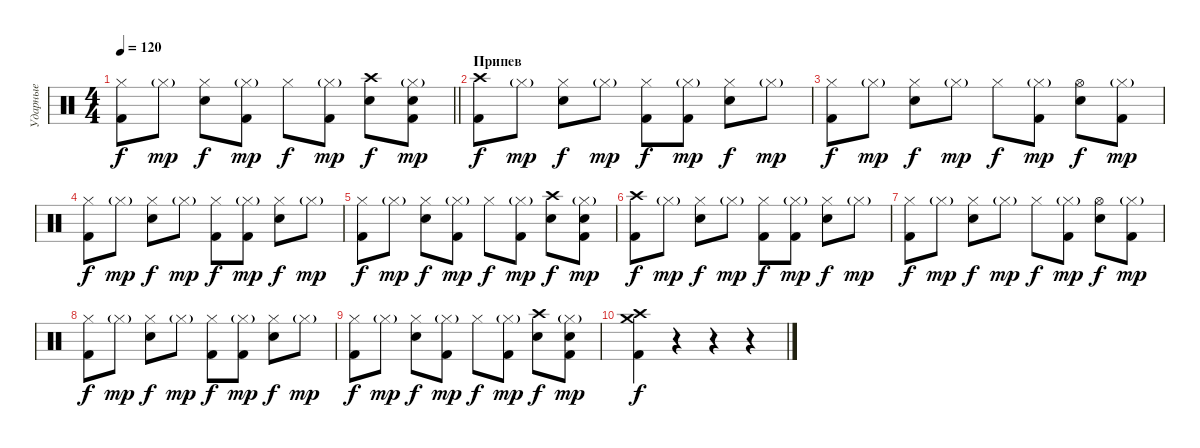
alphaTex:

\track ("Ударные" "Ударные") {instrument percussion}
\staff {score}
\articulation defaults
\ts (4 4)
\tempo 120
\clef neutral
\barLineRight lightlight
\ks c
("Hi-Hat (closed)" "Kick (hit) 2").8{dy f} "Hi-Hat (closed)"{g}.8{dy mp} ("Hi-Hat (closed)" "Electric Snare (hit)").8{dy f} ("Hi-Hat (closed)"{g} "Kick (hit) 2").8{dy mp} "Hi-Hat (closed)".8{dy f} ("Hi-Hat (closed)"{g} "Kick (hit) 2").8{dy mp} ("Crash high (hit)" "Electric Snare (hit)").8{dy f} ("Hi-Hat (closed)"{g} "Kick (hit) 2" "Electric Snare (hit)").8{dy mp} |
\section ("" "Припев")
("Crash high (hit)" "Kick (hit) 2").8{dy f} "Hi-Hat (closed)"{g}.8{dy mp} ("Hi-Hat (closed)" "Electric Snare (hit)").8{dy f} "Hi-Hat (closed)"{g}.8{dy mp} ("Hi-Hat (closed)" "Kick (hit) 2").8{dy f} ("Hi-Hat (closed)"{g} "Kick (hit) 2").8{dy mp} ("Hi-Hat (closed)" "Electric Snare (hit)").8{dy f} "Hi-Hat (closed)"{g}.8{dy mp} |
("Hi-Hat (closed)" "Kick (hit) 2").8{dy f} "Hi-Hat (closed)"{g}.8{dy mp} ("Hi-Hat (closed)" "Electric Snare (hit)").8{dy f} "Hi-Hat (closed)"{g}.8{dy mp} "Hi-Hat (closed)".8{dy f} ("Hi-Hat (closed)"{g} "Kick (hit) 2").8{dy mp} ("Hi-Hat (open)" "Electric Snare (hit)").8{dy f} ("Hi-Hat (closed)"{g} "Kick (hit) 2").8{dy mp} |
("Hi-Hat (closed)" "Kick (hit) 2").8{dy f} "Hi-Hat (closed)"{g}.8{dy mp} ("Hi-Hat (closed)" "Electric Snare (hit)").8{dy f} "Hi-Hat (closed)"{g}.8{dy mp} ("Hi-Hat (closed)" "Kick (hit) 2").8{dy f} ("Hi-Hat (closed)"{g} "Kick (hit) 2").8{dy mp} ("Hi-Hat (closed)" "Electric Snare (hit)").8{dy f} "Hi-Hat (closed)"{g}.8{dy mp} |
("Hi-Hat (closed)" "Kick (hit) 2").8{dy f} "Hi-Hat (closed)"{g}.8{dy mp} ("Hi-Hat (closed)" "Electric Snare (hit)").8{dy f} ("Hi-Hat (closed)"{g} "Kick (hit) 2").8{dy mp} "Hi-Hat (closed)".8{dy f} ("Hi-Hat (closed)"{g} "Kick (hit) 2").8{dy mp} ("Crash high (hit)" "Electric Snare (hit)").8{dy f} ("Hi-Hat (closed)"{g} "Kick (hit) 2" "Electric Snare (hit)").8{dy mp} |
("Crash high (hit)" "Kick (hit) 2").8{dy f} "Hi-Hat (closed)"{g}.8{dy mp} ("Hi-Hat (closed)" "Electric Snare (hit)").8{dy f} "Hi-Hat (closed)"{g}.8{dy mp} ("Hi-Hat (closed)" "Kick (hit) 2").8{dy f} ("Hi-Hat (closed)"{g} "Kick (hit) 2").8{dy mp} ("Hi-Hat (closed)" "Electric Snare (hit)").8{dy f} "Hi-Hat (closed)"{g}.8{dy mp} |
("Hi-Hat (closed)" "Kick (hit) 2").8{dy f} "Hi-Hat (closed)"{g}.8{dy mp} ("Hi-Hat (closed)" "Electric Snare (hit)").8{dy f} "Hi-Hat (closed)"{g}.8{dy mp} "Hi-Hat (closed)".8{dy f} ("Hi-Hat (closed)"{g} "Kick (hit) 2").8{dy mp} ("Hi-Hat (open)" "Electric Snare (hit)").8{dy f} ("Hi-Hat (closed)"{g} "Kick (hit) 2").8{dy mp} |
("Hi-Hat (closed)" "Kick (hit) 2").8{dy f} "Hi-Hat (closed)"{g}.8{dy mp} ("Hi-Hat (closed)" "Electric Snare (hit)").8{dy f} "Hi-Hat (closed)"{g}.8{dy mp} ("Hi-Hat (closed)" "Kick (hit) 2").8{dy f} ("Hi-Hat (closed)"{g} "Kick (hit) 2").8{dy mp} ("Hi-Hat (closed)" "Electric Snare (hit)").8{dy f} "Hi-Hat (closed)"{g}.8{dy mp} |
("Hi-Hat (closed)" "Kick (hit) 2").8{dy f} "Hi-Hat (closed)"{g}.8{dy mp} ("Hi-Hat (closed)" "Electric Snare (hit)").8{dy f} ("Hi-Hat (closed)"{g} "Kick (hit) 2").8{dy mp} "Hi-Hat (closed)".8{dy f} ("Hi-Hat (closed)"{g} "Kick (hit) 2").8{dy mp} ("Crash high (hit)" "Electric Snare (hit)").8{dy f} ("Hi-Hat (closed)"{g} "Kick (hit) 2" "Electric Snare (hit)").8{dy mp} |
("Kick (hit) 2" "Crash high (hit)" "Crash medium (hit)").4{dy f} r.4 r.4 r.4
